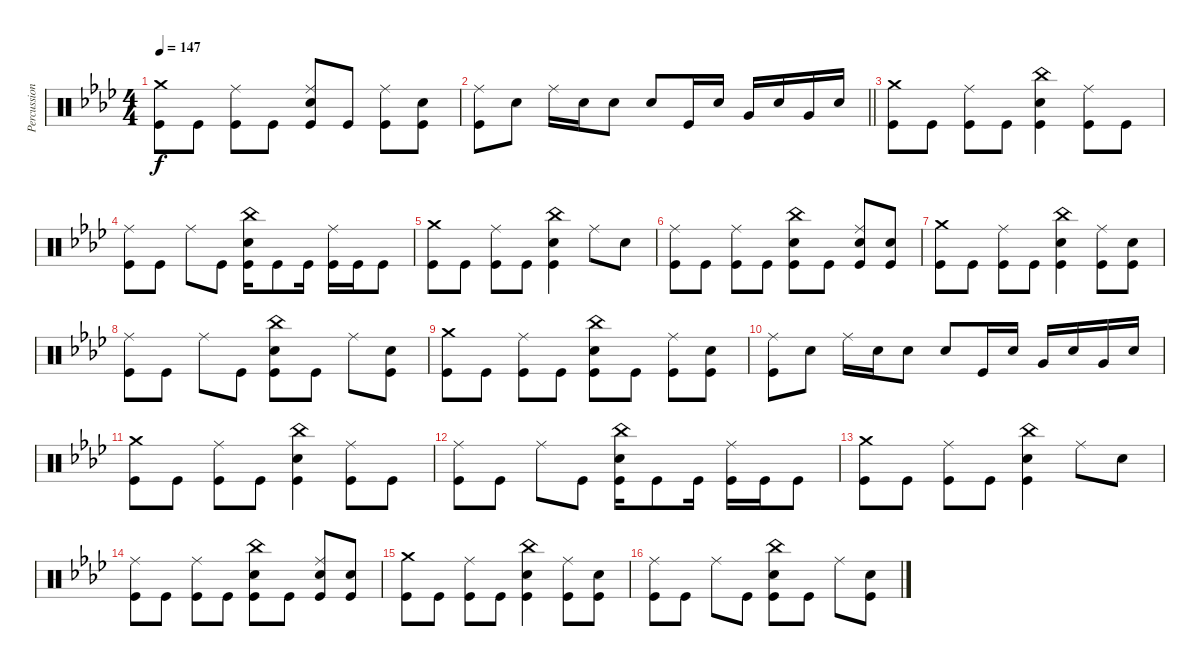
\track ("Percussion" "Percussion") {instrument percussion}
\staff {score}
\articulation defaults
\ts (4 4)
\tempo 147
\clef neutral
\ks ab
("Crash medium (hit)" "Kick (hit)").8{dy f} "Kick (hit)".8 ("Ride (middle)" "Kick (hit)").8 "Kick (hit)".8 ("Ride (middle)" "Electric Snare (hit)" "Kick (hit)").8 "Kick (hit)".8 ("Ride (middle)" "Kick (hit)").8 ("Electric Snare (hit)" "Kick (hit)").8 |
\barLineRight lightlight
("Ride (middle)" "Kick (hit)").8 "Electric Snare (hit)".8 "Ride (middle)".16 "Electric Snare (hit)".16 "Electric Snare (hit)".8 "Electric Snare (hit)".8 "Kick (hit)".16 "Electric Snare (hit)".16 "Very Low Tom (hit)".16 "Electric Snare (hit)".16 "Very Low Tom (hit)".16 "Electric Snare (hit)".16 |
("Crash medium (hit)" "Kick (hit)").8 "Kick (hit)".8 ("Ride (middle)" "Kick (hit)").8 "Kick (hit)".8 ("China (hit)" "Electric Snare (hit)" "Kick (hit)").4 ("Ride (middle)" "Kick (hit)").8 "Kick (hit)".8 |
("Ride (middle)" "Kick (hit)").8 "Kick (hit)".8 "Ride (middle)".8 "Kick (hit)".8 ("China (hit)" "Electric Snare (hit)" "Kick (hit)").16 "Kick (hit)".8 "Kick (hit)".16 ("Ride (middle)" "Kick (hit)").16 "Kick (hit)".16 "Kick (hit)".8 |
("Crash medium (hit)" "Kick (hit)").8 "Kick (hit)".8 ("Ride (middle)" "Kick (hit)").8 "Kick (hit)".8 ("China (hit)" "Electric Snare (hit)" "Kick (hit)").4 "Ride (middle)".8 "Electric Snare (hit)".8 |
("Ride (middle)" "Kick (hit)").8 "Kick (hit)".8 ("Ride (middle)" "Kick (hit)").8 "Kick (hit)".8 ("China (hit)" "Electric Snare (hit)" "Kick (hit)").8 "Kick (hit)".8 ("Ride (middle)" "Electric Snare (hit)" "Kick (hit)").8 ("Electric Snare (hit)" "Kick (hit)").8 |
("Crash medium (hit)" "Kick (hit)").8 "Kick (hit)".8 ("Ride (middle)" "Kick (hit)").8 "Kick (hit)".8 ("China (hit)" "Electric Snare (hit)" "Kick (hit)").4 ("Ride (middle)" "Kick (hit)").8 ("Electric Snare (hit)" "Kick (hit)").8 |
("Ride (middle)" "Kick (hit)").8 "Kick (hit)".8 "Ride (middle)".8 "Kick (hit)".8 ("China (hit)" "Electric Snare (hit)" "Kick (hit)").8 "Kick (hit)".8 "Ride (middle)".8 ("Electric Snare (hit)" "Kick (hit)").8 |
("Crash medium (hit)" "Kick (hit)").8 "Kick (hit)".8 ("Ride (middle)" "Kick (hit)").8 "Kick (hit)".8 ("China (hit)" "Electric Snare (hit)" "Kick (hit)").8 "Kick (hit)".8 ("Ride (middle)" "Kick (hit)").8 ("Electric Snare (hit)" "Kick (hit)").8 |
("Ride (middle)" "Kick (hit)").8 "Electric Snare (hit)".8 "Ride (middle)".16 "Electric Snare (hit)".16 "Electric Snare (hit)".8 "Electric Snare (hit)".8 "Kick (hit)".16 "Electric Snare (hit)".16 "Very Low Tom (hit)".16 "Electric Snare (hit)".16 "Very Low Tom (hit)".16 "Electric Snare (hit)".16 |
("Crash medium (hit)" "Kick (hit)").8 "Kick (hit)".8 ("Ride (middle)" "Kick (hit)").8 "Kick (hit)".8 ("China (hit)" "Electric Snare (hit)" "Kick (hit)").4 ("Ride (middle)" "Kick (hit)").8 "Kick (hit)".8 |
("Ride (middle)" "Kick (hit)").8 "Kick (hit)".8 "Ride (middle)".8 "Kick (hit)".8 ("China (hit)" "Electric Snare (hit)" "Kick (hit)").16 "Kick (hit)".8 "Kick (hit)".16 ("Ride (middle)" "Kick (hit)").16 "Kick (hit)".16 "Kick (hit)".8 |
("Crash medium (hit)" "Kick (hit)").8 "Kick (hit)".8 ("Ride (middle)" "Kick (hit)").8 "Kick (hit)".8 ("China (hit)" "Electric Snare (hit)" "Kick (hit)").4 "Ride (middle)".8 "Electric Snare (hit)".8 |
("Ride (middle)" "Kick (hit)").8 "Kick (hit)".8 ("Ride (middle)" "Kick (hit)").8 "Kick (hit)".8 ("China (hit)" "Electric Snare (hit)" "Kick (hit)").8 "Kick (hit)".8 ("Ride (middle)" "Electric Snare (hit)" "Kick (hit)").8 ("Electric Snare (hit)" "Kick (hit)").8 |
("Crash medium (hit)" "Kick (hit)").8 "Kick (hit)".8 ("Ride (middle)" "Kick (hit)").8 "Kick (hit)".8 ("China (hit)" "Electric Snare (hit)" "Kick (hit)").4 ("Ride (middle)" "Kick (hit)").8 ("Electric Snare (hit)" "Kick (hit)").8 |
("Ride (middle)" "Kick (hit)").8 "Kick (hit)".8 "Ride (middle)".8 "Kick (hit)".8 ("China (hit)" "Electric Snare (hit)" "Kick (hit)").8 "Kick (hit)".8 "Ride (middle)".8 ("Electric Snare (hit)" "Kick (hit)").8
